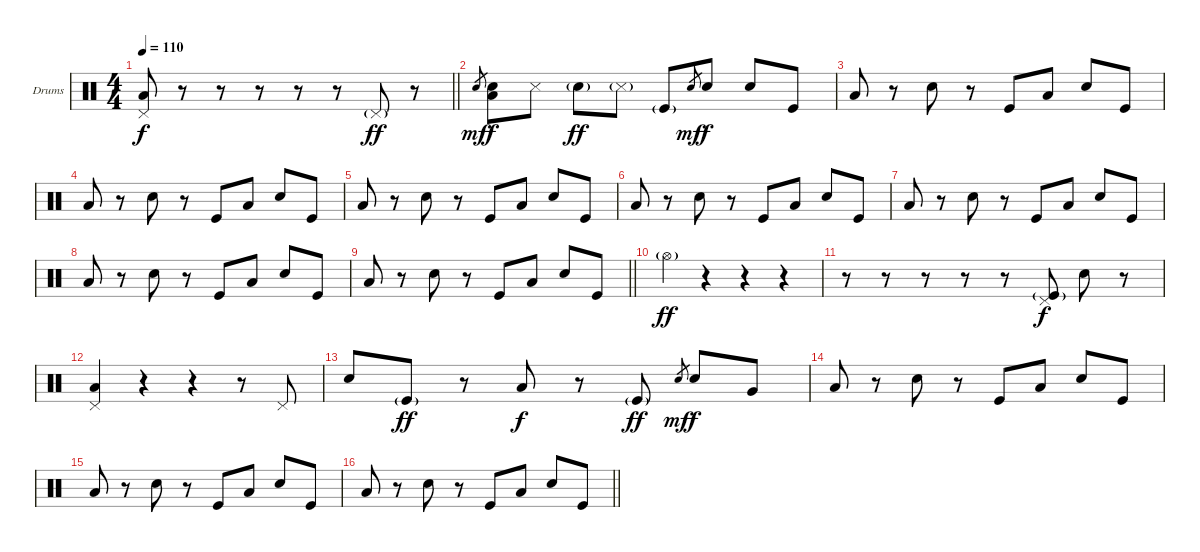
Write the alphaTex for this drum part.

\bracketExtendMode groupsimilarinstruments
\firstSystemTrackNameOrientation horizontal
\otherSystemsTrackNameOrientation horizontal
\track ("Drumkit" "Drums") {instrument percussion}
\staff {score}
\articulation defaults
\ts (4 4)
\tempo 110
\clef neutral
\barLineRight lightlight
\ks c
("Pedal Hi-Hat (hit)" "Low Tom (hit)").8{dy f} r.8 r.8 r.8 r.8 r.8 "Pedal Hi-Hat (hit)"{g}.8{dy ff} r.8 |
"Snare (hit) 2".8{gr dy mf} ("Snare (hit) 2" "Low Tom (hit)").8{dy f} "Snare (side stick) 3".8 "Snare (hit) 2"{g}.8{dy ff} "Snare (side stick) 3"{g}.8 "Kick (hit)"{g}.8 "Snare (hit) 2".8{gr dy mf} "Snare (hit) 2".8{dy f} "Snare (hit) 2".8 "Kick (hit)".8 |
"Low Tom (hit)".8 r.8 "Snare (hit) 2".8 r.8 "Kick (hit)".8 "Low Tom (hit)".8 "Snare (hit) 2".8 "Kick (hit)".8 |
"Low Tom (hit)".8 r.8 "Snare (hit) 2".8 r.8 "Kick (hit)".8 "Low Tom (hit)".8 "Snare (hit) 2".8 "Kick (hit)".8 |
"Low Tom (hit)".8 r.8 "Snare (hit) 2".8 r.8 "Kick (hit)".8 "Low Tom (hit)".8 "Snare (hit) 2".8 "Kick (hit)".8 |
"Low Tom (hit)".8 r.8 "Snare (hit) 2".8 r.8 "Kick (hit)".8 "Low Tom (hit)".8 "Snare (hit) 2".8 "Kick (hit)".8 |
"Low Tom (hit)".8 r.8 "Snare (hit) 2".8 r.8 "Kick (hit)".8 "Low Tom (hit)".8 "Snare (hit) 2".8 "Kick (hit)".8 |
"Low Tom (hit)".8 r.8 "Snare (hit) 2".8 r.8 "Kick (hit)".8 "Low Tom (hit)".8 "Snare (hit) 2".8 "Kick (hit)".8 |
\barLineRight lightlight "Low Tom (hit)".8
r.8 "Snare (hit) 2".8 r.8 "Kick (hit)".8 "Low Tom (hit)".8 "Snare (hit) 2".8 "Kick (hit)".8 |
"Hi-Hat (open)"{g}.4{dy ff} r.4 r.4 r.4 |
r.8 r.8 r.8 r.8 r.8 ("Pedal Hi-Hat (hit)" "Kick (hit)"{g}).8{dy f} "Snare (hit) 2".8 r.8 |
("Pedal Hi-Hat (hit)" "Low Tom (hit)").4 r.4 r.4 r.8 "Pedal Hi-Hat (hit)".8 |
"Snare (hit) 2".8 "Kick (hit)"{g}.8{dy ff} r.8 "Low Tom (hit)".8{dy f} r.8 "Kick (hit)"{g}.8{dy ff} "Snare (hit) 2".8{gr dy mf} "Snare (hit) 2".8{dy f} "Very Low Tom (hit)".8 |
"Low Tom (hit)".8 r.8 "Snare (hit) 2".8 r.8 "Kick (hit)".8 "Low Tom (hit)".8 "Snare (hit) 2".8 "Kick (hit)".8 |
"Low Tom (hit)".8 r.8 "Snare (hit) 2".8 r.8 "Kick (hit)".8 "Low Tom (hit)".8 "Snare (hit) 2".8 "Kick (hit)".8 |
\barLineRight lightlight "Low Tom (hit)".8
r.8 "Snare (hit) 2".8 r.8 "Kick (hit)".8 "Low Tom (hit)".8 "Snare (hit) 2".8 "Kick (hit)".8
